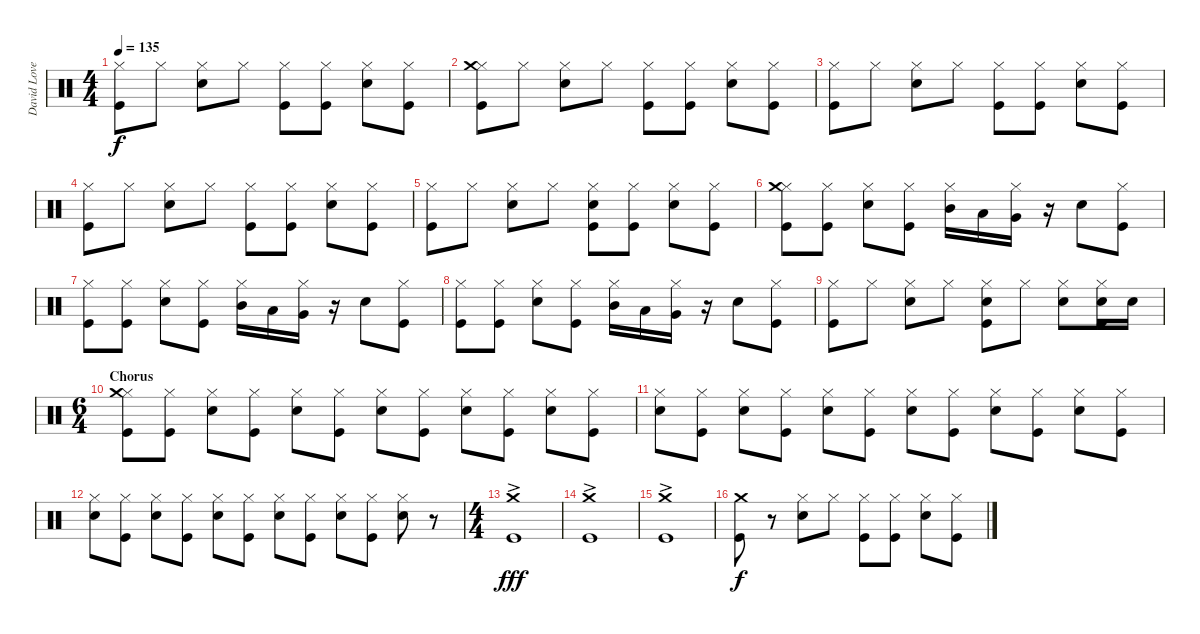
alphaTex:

\track ("David Lovering" "David Love") {instrument percussion}
\staff {score}
\articulation defaults
\ts (4 4)
\tempo 135
\clef neutral
\ks c
("Hi-Hat (closed)" "Kick (hit)").8{dy f} "Hi-Hat (closed)".8 ("Hi-Hat (closed)" "Snare (hit) 2").8 "Hi-Hat (closed)".8 ("Hi-Hat (closed)" "Kick (hit)").8 ("Hi-Hat (closed)" "Kick (hit)").8 ("Hi-Hat (closed)" "Snare (hit) 2").8 ("Hi-Hat (closed)" "Kick (hit)").8 |
("Hi-Hat (closed)" "Crash medium (hit)" "Kick (hit)").8 "Hi-Hat (closed)".8 ("Hi-Hat (closed)" "Snare (hit) 2").8 "Hi-Hat (closed)".8 ("Hi-Hat (closed)" "Kick (hit)").8 ("Hi-Hat (closed)" "Kick (hit)").8 ("Hi-Hat (closed)" "Snare (hit) 2").8 ("Hi-Hat (closed)" "Kick (hit)").8 |
("Hi-Hat (closed)" "Kick (hit)").8 "Hi-Hat (closed)".8 ("Hi-Hat (closed)" "Snare (hit) 2").8 "Hi-Hat (closed)".8 ("Hi-Hat (closed)" "Kick (hit)").8 ("Hi-Hat (closed)" "Kick (hit)").8 ("Hi-Hat (closed)" "Snare (hit) 2").8 ("Hi-Hat (closed)" "Kick (hit)").8 |
("Hi-Hat (closed)" "Kick (hit)").8 "Hi-Hat (closed)".8 ("Hi-Hat (closed)" "Snare (hit) 2").8 "Hi-Hat (closed)".8 ("Hi-Hat (closed)" "Kick (hit)").8 ("Hi-Hat (closed)" "Kick (hit)").8 ("Hi-Hat (closed)" "Snare (hit) 2").8 ("Hi-Hat (closed)" "Kick (hit)").8 |
("Hi-Hat (closed)" "Kick (hit)").8 "Hi-Hat (closed)".8 ("Hi-Hat (closed)" "Snare (hit) 2").8 "Hi-Hat (closed)".8 ("Hi-Hat (closed)" "Snare (hit) 2" "Kick (hit)").8 ("Hi-Hat (closed)" "Kick (hit)").8 ("Hi-Hat (closed)" "Snare (hit) 2").8 ("Hi-Hat (closed)" "Kick (hit)").8 |
("Hi-Hat (closed)" "Crash medium (hit)" "Kick (hit)").8 ("Hi-Hat (closed)" "Kick (hit)").8 ("Hi-Hat (closed)" "Snare (hit) 2").8 ("Hi-Hat (closed)" "Kick (hit)").8 ("Hi-Hat (closed)" "Mid Tom (hit)").16 "Low Tom (hit)".16 ("Hi-Hat (closed)" "Very Low Tom (hit)").16 r.16 "Snare (hit) 2".8 ("Hi-Hat (closed)" "Kick (hit)").8 |
("Hi-Hat (closed)" "Kick (hit)").8 ("Hi-Hat (closed)" "Kick (hit)").8 ("Hi-Hat (closed)" "Snare (hit) 2").8 ("Hi-Hat (closed)" "Kick (hit)").8 ("Hi-Hat (closed)" "Mid Tom (hit)").16 "Low Tom (hit)".16 ("Hi-Hat (closed)" "Very Low Tom (hit)").16 r.16 "Snare (hit) 2".8 ("Hi-Hat (closed)" "Kick (hit)").8 |
("Hi-Hat (closed)" "Kick (hit)").8 ("Hi-Hat (closed)" "Kick (hit)").8 ("Hi-Hat (closed)" "Snare (hit) 2").8 ("Hi-Hat (closed)" "Kick (hit)").8 ("Hi-Hat (closed)" "Mid Tom (hit)").16 "Low Tom (hit)".16 ("Hi-Hat (closed)" "Very Low Tom (hit)").16 r.16 "Snare (hit) 2".8 ("Hi-Hat (closed)" "Kick (hit)").8 |
("Hi-Hat (closed)" "Kick (hit)").8 "Hi-Hat (closed)".8 ("Hi-Hat (closed)" "Snare (hit) 2").8 "Hi-Hat (closed)".8 ("Hi-Hat (closed)" "Snare (hit) 2" "Kick (hit)").8 "Hi-Hat (closed)".8 ("Hi-Hat (closed)" "Snare (hit) 2").8 ("Hi-Hat (closed)" "Snare (hit) 2" "Kick (hit)").16 "Snare (hit) 2".16 |
\ts (6 4)
\section ("" "Chorus")
("Hi-Hat (closed)" "Crash medium (hit)" "Kick (hit)").8 ("Hi-Hat (closed)" "Kick (hit)").8 ("Hi-Hat (closed)" "Snare (hit) 2").8 ("Hi-Hat (closed)" "Kick (hit)").8 ("Hi-Hat (closed)" "Snare (hit) 2").8 ("Hi-Hat (closed)" "Kick (hit)").8 ("Hi-Hat (closed)" "Snare (hit) 2").8 ("Hi-Hat (closed)" "Kick (hit)").8 ("Hi-Hat (closed)" "Snare (hit) 2").8 ("Hi-Hat (closed)" "Kick (hit)").8 ("Hi-Hat (closed)" "Snare (hit) 2").8 ("Hi-Hat (closed)" "Kick (hit)").8 |
("Hi-Hat (closed)" "Snare (hit) 2").8 ("Hi-Hat (closed)" "Kick (hit)").8 ("Hi-Hat (closed)" "Snare (hit) 2").8 ("Hi-Hat (closed)" "Kick (hit)").8 ("Hi-Hat (closed)" "Snare (hit) 2").8 ("Hi-Hat (closed)" "Kick (hit)").8 ("Hi-Hat (closed)" "Snare (hit) 2").8 ("Hi-Hat (closed)" "Kick (hit)").8 ("Hi-Hat (closed)" "Snare (hit) 2").8 ("Hi-Hat (closed)" "Kick (hit)").8 ("Hi-Hat (closed)" "Snare (hit) 2").8 ("Hi-Hat (closed)" "Kick (hit)").8 |
("Hi-Hat (closed)" "Snare (hit) 2").8 ("Hi-Hat (closed)" "Kick (hit)").8 ("Hi-Hat (closed)" "Snare (hit) 2").8 ("Hi-Hat (closed)" "Kick (hit)").8 ("Hi-Hat (closed)" "Snare (hit) 2").8 ("Hi-Hat (closed)" "Kick (hit)").8 ("Hi-Hat (closed)" "Snare (hit) 2").8 ("Hi-Hat (closed)" "Kick (hit)").8 ("Hi-Hat (closed)" "Snare (hit) 2").8 ("Hi-Hat (closed)" "Kick (hit)").8 ("Hi-Hat (closed)" "Snare (hit) 2").8 r.8 |
\ts (4 4)
("Crash medium (hit)"{ac} "Kick (hit)").1{dy fff} |
("Crash medium (hit)"{ac} "Kick (hit)").1 |
("Crash medium (hit)"{ac} "Kick (hit)").1 |
("Crash medium (hit)" "Kick (hit)").8{dy f} r.8 ("Hi-Hat (closed)" "Snare (hit) 2").8 "Hi-Hat (closed)".8 ("Hi-Hat (closed)" "Kick (hit)").8 ("Hi-Hat (closed)" "Kick (hit)").8 ("Hi-Hat (closed)" "Snare (hit) 2").8 ("Hi-Hat (closed)" "Kick (hit)").8
